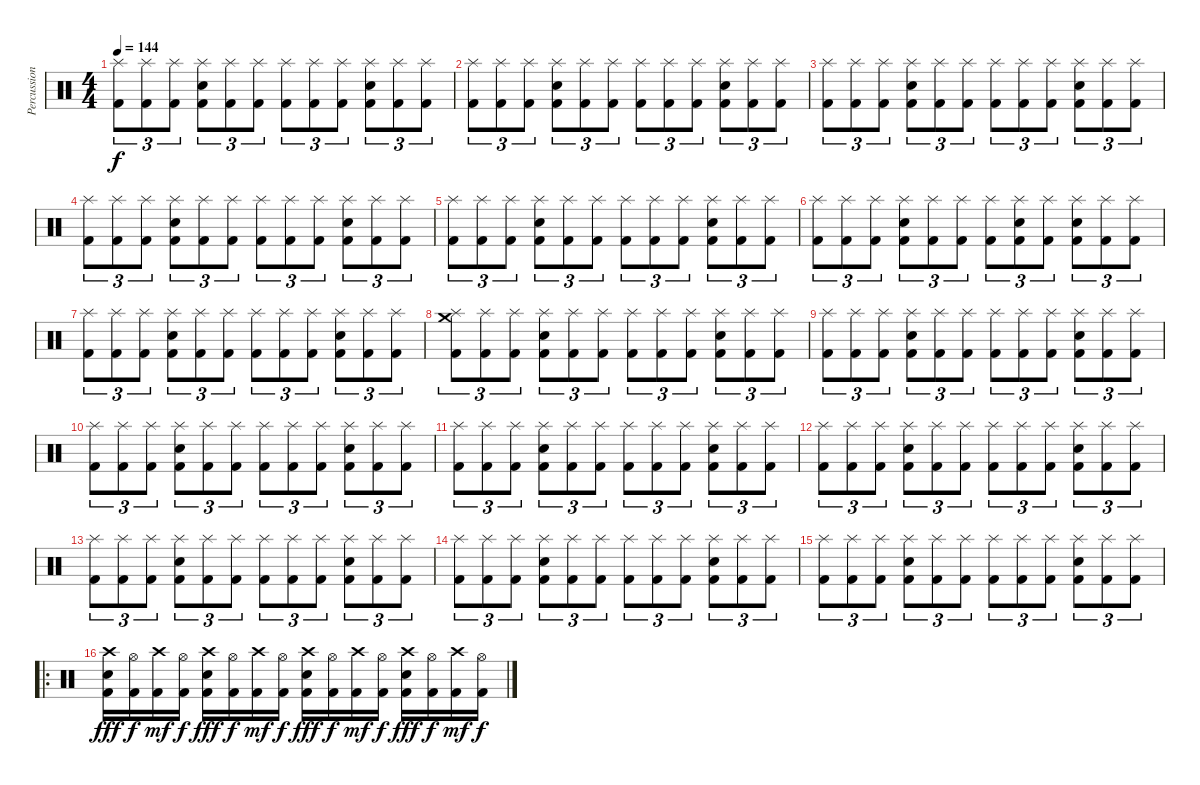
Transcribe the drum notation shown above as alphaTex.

\track ("Percussion -  Bard Faust" "Percussion") {instrument percussion}
\staff {score}
\articulation defaults
\ts (4 4)
\tempo 144
\clef neutral
\ks c
("Splash (hit)" "Kick (hit) 2").8{tu (3 2) dy f} ("Splash (hit)" "Kick (hit) 2").8{tu (3 2)} ("Splash (hit)" "Kick (hit) 2").8{tu (3 2)} ("Splash (hit)" "Electric Snare (hit)" "Kick (hit) 2").8{tu (3 2)} ("Splash (hit)" "Kick (hit) 2").8{tu (3 2)} ("Splash (hit)" "Kick (hit) 2").8{tu (3 2)} ("Splash (hit)" "Kick (hit) 2").8{tu (3 2)} ("Splash (hit)" "Kick (hit) 2").8{tu (3 2)} ("Splash (hit)" "Kick (hit) 2").8{tu (3 2)} ("Splash (hit)" "Electric Snare (hit)" "Kick (hit) 2").8{tu (3 2)} ("Splash (hit)" "Kick (hit) 2").8{tu (3 2)} ("Splash (hit)" "Kick (hit) 2").8{tu (3 2)} |
("Splash (hit)" "Kick (hit) 2").8{tu (3 2)} ("Splash (hit)" "Kick (hit) 2").8{tu (3 2)} ("Splash (hit)" "Kick (hit) 2").8{tu (3 2)} ("Splash (hit)" "Electric Snare (hit)" "Kick (hit) 2").8{tu (3 2)} ("Splash (hit)" "Kick (hit) 2").8{tu (3 2)} ("Splash (hit)" "Kick (hit) 2").8{tu (3 2)} ("Splash (hit)" "Kick (hit) 2").8{tu (3 2)} ("Splash (hit)" "Kick (hit) 2").8{tu (3 2)} ("Splash (hit)" "Kick (hit) 2").8{tu (3 2)} ("Splash (hit)" "Electric Snare (hit)" "Kick (hit) 2").8{tu (3 2)} ("Splash (hit)" "Kick (hit) 2").8{tu (3 2)} ("Splash (hit)" "Kick (hit) 2").8{tu (3 2)} |
("Splash (hit)" "Kick (hit) 2").8{tu (3 2)} ("Splash (hit)" "Kick (hit) 2").8{tu (3 2)} ("Splash (hit)" "Kick (hit) 2").8{tu (3 2)} ("Splash (hit)" "Electric Snare (hit)" "Kick (hit) 2").8{tu (3 2)} ("Splash (hit)" "Kick (hit) 2").8{tu (3 2)} ("Splash (hit)" "Kick (hit) 2").8{tu (3 2)} ("Splash (hit)" "Kick (hit) 2").8{tu (3 2)} ("Splash (hit)" "Kick (hit) 2").8{tu (3 2)} ("Splash (hit)" "Kick (hit) 2").8{tu (3 2)} ("Splash (hit)" "Electric Snare (hit)" "Kick (hit) 2").8{tu (3 2)} ("Splash (hit)" "Kick (hit) 2").8{tu (3 2)} ("Splash (hit)" "Kick (hit) 2").8{tu (3 2)} |
("Splash (hit)" "Kick (hit) 2").8{tu (3 2)} ("Splash (hit)" "Kick (hit) 2").8{tu (3 2)} ("Splash (hit)" "Kick (hit) 2").8{tu (3 2)} ("Splash (hit)" "Electric Snare (hit)" "Kick (hit) 2").8{tu (3 2)} ("Splash (hit)" "Kick (hit) 2").8{tu (3 2)} ("Splash (hit)" "Kick (hit) 2").8{tu (3 2)} ("Splash (hit)" "Kick (hit) 2").8{tu (3 2)} ("Splash (hit)" "Kick (hit) 2").8{tu (3 2)} ("Splash (hit)" "Kick (hit) 2").8{tu (3 2)} ("Splash (hit)" "Electric Snare (hit)" "Kick (hit) 2").8{tu (3 2)} ("Splash (hit)" "Kick (hit) 2").8{tu (3 2)} ("Splash (hit)" "Kick (hit) 2").8{tu (3 2)} |
("Splash (hit)" "Kick (hit) 2").8{tu (3 2)} ("Splash (hit)" "Kick (hit) 2").8{tu (3 2)} ("Splash (hit)" "Kick (hit) 2").8{tu (3 2)} ("Splash (hit)" "Electric Snare (hit)" "Kick (hit) 2").8{tu (3 2)} ("Splash (hit)" "Kick (hit) 2").8{tu (3 2)} ("Splash (hit)" "Kick (hit) 2").8{tu (3 2)} ("Splash (hit)" "Kick (hit) 2").8{tu (3 2)} ("Splash (hit)" "Kick (hit) 2").8{tu (3 2)} ("Splash (hit)" "Kick (hit) 2").8{tu (3 2)} ("Splash (hit)" "Electric Snare (hit)" "Kick (hit) 2").8{tu (3 2)} ("Splash (hit)" "Kick (hit) 2").8{tu (3 2)} ("Splash (hit)" "Kick (hit) 2").8{tu (3 2)} |
("Splash (hit)" "Kick (hit) 2").8{tu (3 2)} ("Splash (hit)" "Kick (hit) 2").8{tu (3 2)} ("Splash (hit)" "Kick (hit) 2").8{tu (3 2)} ("Splash (hit)" "Electric Snare (hit)" "Kick (hit) 2").8{tu (3 2)} ("Splash (hit)" "Kick (hit) 2").8{tu (3 2)} ("Splash (hit)" "Kick (hit) 2").8{tu (3 2)} ("Splash (hit)" "Kick (hit) 2").8{tu (3 2)} ("Splash (hit)" "Electric Snare (hit)" "Kick (hit) 2").8{tu (3 2)} ("Splash (hit)" "Kick (hit) 2").8{tu (3 2)} ("Splash (hit)" "Electric Snare (hit)" "Kick (hit) 2").8{tu (3 2)} ("Splash (hit)" "Kick (hit) 2").8{tu (3 2)} ("Splash (hit)" "Kick (hit) 2").8{tu (3 2)} |
("Splash (hit)" "Kick (hit) 2").8{tu (3 2)} ("Splash (hit)" "Kick (hit) 2").8{tu (3 2)} ("Splash (hit)" "Kick (hit) 2").8{tu (3 2)} ("Splash (hit)" "Electric Snare (hit)" "Kick (hit) 2").8{tu (3 2)} ("Splash (hit)" "Kick (hit) 2").8{tu (3 2)} ("Splash (hit)" "Kick (hit) 2").8{tu (3 2)} ("Splash (hit)" "Kick (hit) 2").8{tu (3 2)} ("Splash (hit)" "Kick (hit) 2").8{tu (3 2)} ("Splash (hit)" "Kick (hit) 2").8{tu (3 2)} ("Splash (hit)" "Electric Snare (hit)" "Kick (hit) 2").8{tu (3 2)} ("Splash (hit)" "Kick (hit) 2").8{tu (3 2)} ("Splash (hit)" "Kick (hit) 2").8{tu (3 2)} |
("Splash (hit)" "Crash medium (hit)" "Kick (hit) 2").8{tu (3 2)} ("Splash (hit)" "Kick (hit) 2").8{tu (3 2)} ("Splash (hit)" "Kick (hit) 2").8{tu (3 2)} ("Splash (hit)" "Electric Snare (hit)" "Kick (hit) 2").8{tu (3 2)} ("Splash (hit)" "Kick (hit) 2").8{tu (3 2)} ("Splash (hit)" "Kick (hit) 2").8{tu (3 2)} ("Splash (hit)" "Kick (hit) 2").8{tu (3 2)} ("Splash (hit)" "Kick (hit) 2").8{tu (3 2)} ("Splash (hit)" "Kick (hit) 2").8{tu (3 2)} ("Splash (hit)" "Electric Snare (hit)" "Kick (hit) 2").8{tu (3 2)} ("Splash (hit)" "Kick (hit) 2").8{tu (3 2)} ("Splash (hit)" "Kick (hit) 2").8{tu (3 2)} |
("Splash (hit)" "Kick (hit) 2").8{tu (3 2)} ("Splash (hit)" "Kick (hit) 2").8{tu (3 2)} ("Splash (hit)" "Kick (hit) 2").8{tu (3 2)} ("Splash (hit)" "Electric Snare (hit)" "Kick (hit) 2").8{tu (3 2)} ("Splash (hit)" "Kick (hit) 2").8{tu (3 2)} ("Splash (hit)" "Kick (hit) 2").8{tu (3 2)} ("Splash (hit)" "Kick (hit) 2").8{tu (3 2)} ("Splash (hit)" "Kick (hit) 2").8{tu (3 2)} ("Splash (hit)" "Kick (hit) 2").8{tu (3 2)} ("Splash (hit)" "Electric Snare (hit)" "Kick (hit) 2").8{tu (3 2)} ("Splash (hit)" "Kick (hit) 2").8{tu (3 2)} ("Splash (hit)" "Kick (hit) 2").8{tu (3 2)} |
("Splash (hit)" "Kick (hit) 2").8{tu (3 2)} ("Splash (hit)" "Kick (hit) 2").8{tu (3 2)} ("Splash (hit)" "Kick (hit) 2").8{tu (3 2)} ("Splash (hit)" "Electric Snare (hit)" "Kick (hit) 2").8{tu (3 2)} ("Splash (hit)" "Kick (hit) 2").8{tu (3 2)} ("Splash (hit)" "Kick (hit) 2").8{tu (3 2)} ("Splash (hit)" "Kick (hit) 2").8{tu (3 2)} ("Splash (hit)" "Kick (hit) 2").8{tu (3 2)} ("Splash (hit)" "Kick (hit) 2").8{tu (3 2)} ("Splash (hit)" "Electric Snare (hit)" "Kick (hit) 2").8{tu (3 2)} ("Splash (hit)" "Kick (hit) 2").8{tu (3 2)} ("Splash (hit)" "Kick (hit) 2").8{tu (3 2)} |
("Splash (hit)" "Kick (hit) 2").8{tu (3 2)} ("Splash (hit)" "Kick (hit) 2").8{tu (3 2)} ("Splash (hit)" "Kick (hit) 2").8{tu (3 2)} ("Splash (hit)" "Electric Snare (hit)" "Kick (hit) 2").8{tu (3 2)} ("Splash (hit)" "Kick (hit) 2").8{tu (3 2)} ("Splash (hit)" "Kick (hit) 2").8{tu (3 2)} ("Splash (hit)" "Kick (hit) 2").8{tu (3 2)} ("Splash (hit)" "Kick (hit) 2").8{tu (3 2)} ("Splash (hit)" "Kick (hit) 2").8{tu (3 2)} ("Splash (hit)" "Electric Snare (hit)" "Kick (hit) 2").8{tu (3 2)} ("Splash (hit)" "Kick (hit) 2").8{tu (3 2)} ("Splash (hit)" "Kick (hit) 2").8{tu (3 2)} |
("Splash (hit)" "Kick (hit) 2").8{tu (3 2)} ("Splash (hit)" "Kick (hit) 2").8{tu (3 2)} ("Splash (hit)" "Kick (hit) 2").8{tu (3 2)} ("Splash (hit)" "Electric Snare (hit)" "Kick (hit) 2").8{tu (3 2)} ("Splash (hit)" "Kick (hit) 2").8{tu (3 2)} ("Splash (hit)" "Kick (hit) 2").8{tu (3 2)} ("Splash (hit)" "Kick (hit) 2").8{tu (3 2)} ("Splash (hit)" "Kick (hit) 2").8{tu (3 2)} ("Splash (hit)" "Kick (hit) 2").8{tu (3 2)} ("Splash (hit)" "Electric Snare (hit)" "Kick (hit) 2").8{tu (3 2)} ("Splash (hit)" "Kick (hit) 2").8{tu (3 2)} ("Splash (hit)" "Kick (hit) 2").8{tu (3 2)} |
("Splash (hit)" "Kick (hit) 2").8{tu (3 2)} ("Splash (hit)" "Kick (hit) 2").8{tu (3 2)} ("Splash (hit)" "Kick (hit) 2").8{tu (3 2)} ("Splash (hit)" "Electric Snare (hit)" "Kick (hit) 2").8{tu (3 2)} ("Splash (hit)" "Kick (hit) 2").8{tu (3 2)} ("Splash (hit)" "Kick (hit) 2").8{tu (3 2)} ("Splash (hit)" "Kick (hit) 2").8{tu (3 2)} ("Splash (hit)" "Kick (hit) 2").8{tu (3 2)} ("Splash (hit)" "Kick (hit) 2").8{tu (3 2)} ("Splash (hit)" "Electric Snare (hit)" "Kick (hit) 2").8{tu (3 2)} ("Splash (hit)" "Kick (hit) 2").8{tu (3 2)} ("Splash (hit)" "Kick (hit) 2").8{tu (3 2)} |
("Splash (hit)" "Kick (hit) 2").8{tu (3 2)} ("Splash (hit)" "Kick (hit) 2").8{tu (3 2)} ("Splash (hit)" "Kick (hit) 2").8{tu (3 2)} ("Splash (hit)" "Electric Snare (hit)" "Kick (hit) 2").8{tu (3 2)} ("Splash (hit)" "Kick (hit) 2").8{tu (3 2)} ("Splash (hit)" "Kick (hit) 2").8{tu (3 2)} ("Splash (hit)" "Kick (hit) 2").8{tu (3 2)} ("Splash (hit)" "Kick (hit) 2").8{tu (3 2)} ("Splash (hit)" "Kick (hit) 2").8{tu (3 2)} ("Splash (hit)" "Electric Snare (hit)" "Kick (hit) 2").8{tu (3 2)} ("Splash (hit)" "Kick (hit) 2").8{tu (3 2)} ("Splash (hit)" "Kick (hit) 2").8{tu (3 2)} |
("Splash (hit)" "Kick (hit) 2").8{tu (3 2)} ("Splash (hit)" "Kick (hit) 2").8{tu (3 2)} ("Splash (hit)" "Kick (hit) 2").8{tu (3 2)} ("Splash (hit)" "Electric Snare (hit)" "Kick (hit) 2").8{tu (3 2)} ("Splash (hit)" "Kick (hit) 2").8{tu (3 2)} ("Splash (hit)" "Kick (hit) 2").8{tu (3 2)} ("Splash (hit)" "Kick (hit) 2").8{tu (3 2)} ("Splash (hit)" "Kick (hit) 2").8{tu (3 2)} ("Splash (hit)" "Kick (hit) 2").8{tu (3 2)} ("Splash (hit)" "Electric Snare (hit)" "Kick (hit) 2").8{tu (3 2)} ("Splash (hit)" "Kick (hit) 2").8{tu (3 2)} ("Splash (hit)" "Kick (hit) 2").8{tu (3 2)} |
\ro
("Crash high (hit)" "Electric Snare (hit)" "Kick (hit) 2").16{dy fff} ("Hi-Hat (open)" "Kick (hit) 2").16{dy f} ("Crash high (hit)" "Kick (hit) 2").16{dy mf} ("Hi-Hat (open)" "Kick (hit) 2").16{dy f} ("Crash high (hit)" "Electric Snare (hit)" "Kick (hit) 2").16{dy fff} ("Hi-Hat (open)" "Kick (hit) 2").16{dy f} ("Crash high (hit)" "Kick (hit) 2").16{dy mf} ("Hi-Hat (open)" "Kick (hit) 2").16{dy f} ("Crash high (hit)" "Electric Snare (hit)" "Kick (hit) 2").16{dy fff} ("Hi-Hat (open)" "Kick (hit) 2").16{dy f} ("Crash high (hit)" "Kick (hit) 2").16{dy mf} ("Hi-Hat (open)" "Kick (hit) 2").16{dy f} ("Crash high (hit)" "Electric Snare (hit)" "Kick (hit) 2").16{dy fff} ("Hi-Hat (open)" "Kick (hit) 2").16{dy f} ("Crash high (hit)" "Kick (hit) 2").16{dy mf} ("Hi-Hat (open)" "Kick (hit) 2").16{dy f}
